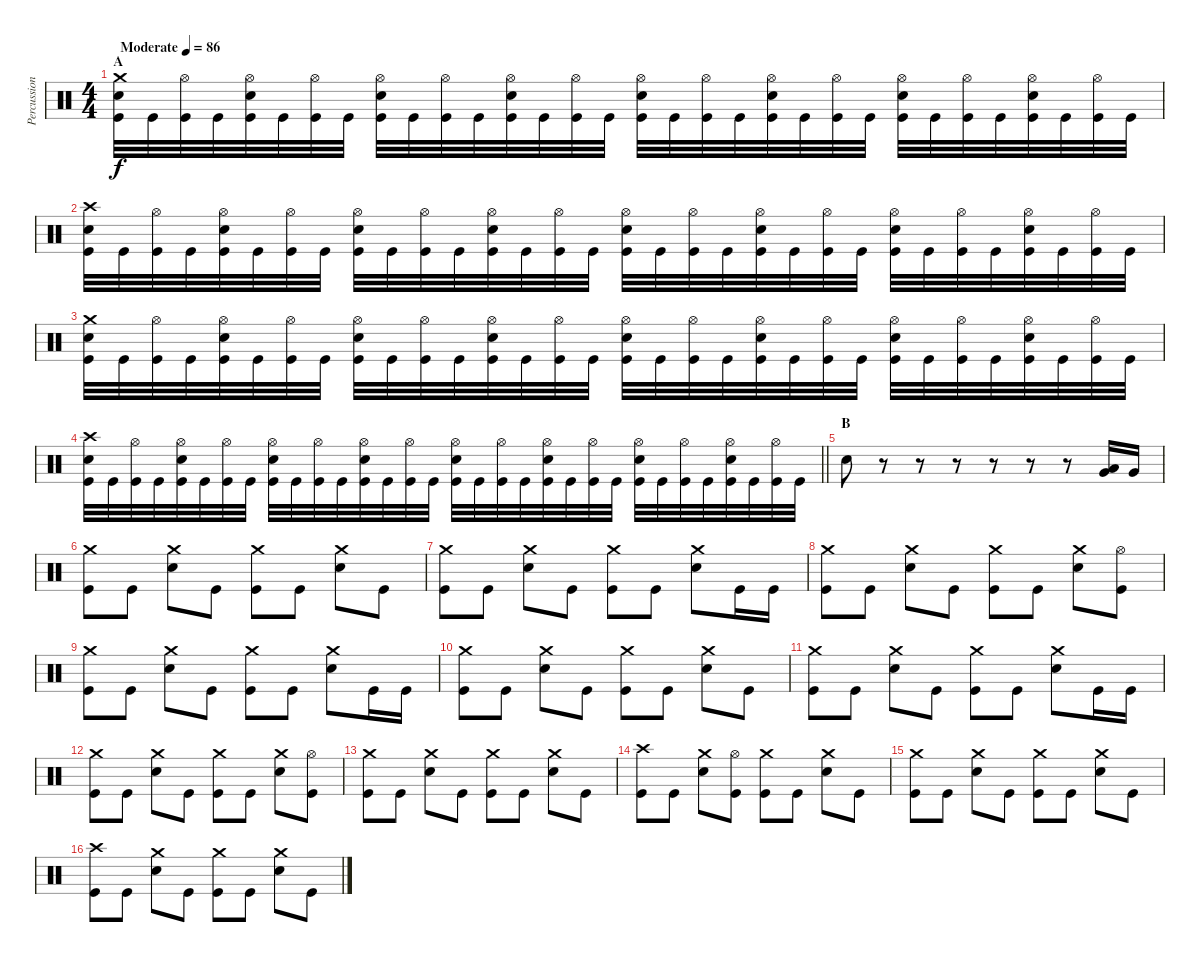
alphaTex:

\track ("Percussion" "Percussion") {instrument percussion}
\staff {score}
\articulation defaults
\ts (4 4)
\section ("" "A")
\tempo (86 "Moderate")
\clef neutral
\ks c
("Kick (hit)" "Snare (hit) 2" "Crash medium (hit)").32{dy f} "Kick (hit)".32 ("Kick (hit)" "Hi-Hat (open)").32 "Kick (hit)".32 ("Kick (hit)" "Snare (hit) 2" "Hi-Hat (open)").32 "Kick (hit)".32 ("Kick (hit)" "Hi-Hat (open)").32 "Kick (hit)".32 ("Kick (hit)" "Snare (hit) 2" "Hi-Hat (open)").32 "Kick (hit)".32 ("Kick (hit)" "Hi-Hat (open)").32 "Kick (hit)".32 ("Kick (hit)" "Snare (hit) 2" "Hi-Hat (open)").32 "Kick (hit)".32 ("Kick (hit)" "Hi-Hat (open)").32 "Kick (hit)".32 ("Kick (hit)" "Snare (hit) 2" "Hi-Hat (open)").32 "Kick (hit)".32 ("Kick (hit)" "Hi-Hat (open)").32 "Kick (hit)".32 ("Kick (hit)" "Snare (hit) 2" "Hi-Hat (open)").32 "Kick (hit)".32 ("Kick (hit)" "Hi-Hat (open)").32 "Kick (hit)".32 ("Kick (hit)" "Snare (hit) 2" "Hi-Hat (open)").32 "Kick (hit)".32 ("Kick (hit)" "Hi-Hat (open)").32 "Kick (hit)".32 ("Kick (hit)" "Snare (hit) 2" "Hi-Hat (open)").32 "Kick (hit)".32 ("Kick (hit)" "Hi-Hat (open)").32 "Kick (hit)".32 |
("Kick (hit)" "Snare (hit) 2" "Crash high (hit)").32 "Kick (hit)".32 ("Kick (hit)" "Hi-Hat (open)").32 "Kick (hit)".32 ("Kick (hit)" "Snare (hit) 2" "Hi-Hat (open)").32 "Kick (hit)".32 ("Kick (hit)" "Hi-Hat (open)").32 "Kick (hit)".32 ("Kick (hit)" "Snare (hit) 2" "Hi-Hat (open)").32 "Kick (hit)".32 ("Kick (hit)" "Hi-Hat (open)").32 "Kick (hit)".32 ("Kick (hit)" "Snare (hit) 2" "Hi-Hat (open)").32 "Kick (hit)".32 ("Kick (hit)" "Hi-Hat (open)").32 "Kick (hit)".32 ("Kick (hit)" "Snare (hit) 2" "Hi-Hat (open)").32 "Kick (hit)".32 ("Kick (hit)" "Hi-Hat (open)").32 "Kick (hit)".32 ("Kick (hit)" "Snare (hit) 2" "Hi-Hat (open)").32 "Kick (hit)".32 ("Kick (hit)" "Hi-Hat (open)").32 "Kick (hit)".32 ("Kick (hit)" "Snare (hit) 2" "Hi-Hat (open)").32 "Kick (hit)".32 ("Kick (hit)" "Hi-Hat (open)").32 "Kick (hit)".32 ("Kick (hit)" "Snare (hit) 2" "Hi-Hat (open)").32 "Kick (hit)".32 ("Kick (hit)" "Hi-Hat (open)").32 "Kick (hit)".32 |
("Kick (hit)" "Snare (hit) 2" "Crash medium (hit)").32 "Kick (hit)".32 ("Kick (hit)" "Hi-Hat (open)").32 "Kick (hit)".32 ("Kick (hit)" "Snare (hit) 2" "Hi-Hat (open)").32 "Kick (hit)".32 ("Kick (hit)" "Hi-Hat (open)").32 "Kick (hit)".32 ("Kick (hit)" "Snare (hit) 2" "Hi-Hat (open)").32 "Kick (hit)".32 ("Kick (hit)" "Hi-Hat (open)").32 "Kick (hit)".32 ("Kick (hit)" "Snare (hit) 2" "Hi-Hat (open)").32 "Kick (hit)".32 ("Kick (hit)" "Hi-Hat (open)").32 "Kick (hit)".32 ("Kick (hit)" "Snare (hit) 2" "Hi-Hat (open)").32 "Kick (hit)".32 ("Kick (hit)" "Hi-Hat (open)").32 "Kick (hit)".32 ("Kick (hit)" "Snare (hit) 2" "Hi-Hat (open)").32 "Kick (hit)".32 ("Kick (hit)" "Hi-Hat (open)").32 "Kick (hit)".32 ("Kick (hit)" "Snare (hit) 2" "Hi-Hat (open)").32 "Kick (hit)".32 ("Kick (hit)" "Hi-Hat (open)").32 "Kick (hit)".32 ("Kick (hit)" "Snare (hit) 2" "Hi-Hat (open)").32 "Kick (hit)".32 ("Kick (hit)" "Hi-Hat (open)").32 "Kick (hit)".32 |
\barLineRight lightlight
("Kick (hit)" "Snare (hit) 2" "Crash high (hit)").32 "Kick (hit)".32 ("Kick (hit)" "Hi-Hat (open)").32 "Kick (hit)".32 ("Kick (hit)" "Snare (hit) 2" "Hi-Hat (open)").32 "Kick (hit)".32 ("Kick (hit)" "Hi-Hat (open)").32 "Kick (hit)".32 ("Kick (hit)" "Snare (hit) 2" "Hi-Hat (open)").32 "Kick (hit)".32 ("Kick (hit)" "Hi-Hat (open)").32 "Kick (hit)".32 ("Kick (hit)" "Snare (hit) 2" "Hi-Hat (open)").32 "Kick (hit)".32 ("Kick (hit)" "Hi-Hat (open)").32 "Kick (hit)".32 ("Kick (hit)" "Snare (hit) 2" "Hi-Hat (open)").32 "Kick (hit)".32 ("Kick (hit)" "Hi-Hat (open)").32 "Kick (hit)".32 ("Kick (hit)" "Snare (hit) 2" "Hi-Hat (open)").32 "Kick (hit)".32 ("Kick (hit)" "Hi-Hat (open)").32 "Kick (hit)".32 ("Kick (hit)" "Snare (hit) 2" "Hi-Hat (open)").32 "Kick (hit)".32 ("Kick (hit)" "Hi-Hat (open)").32 "Kick (hit)".32 ("Kick (hit)" "Snare (hit) 2" "Hi-Hat (open)").32 "Kick (hit)".32 ("Kick (hit)" "Hi-Hat (open)").32 "Kick (hit)".32 |
\section ("" "B")
"Snare (hit) 2".8 r.8 r.8 r.8 r.8 r.8 r.8 ("Low Tom (hit)" "Very Low Tom (hit)").16{bd 120} "Very Low Tom (hit)".16 |
("Kick (hit)" "Crash medium (hit)").8 "Kick (hit)".8 ("Snare (hit) 2" "Crash medium (hit)").8 "Kick (hit)".8 ("Kick (hit)" "Crash medium (hit)").8 "Kick (hit)".8 ("Snare (hit) 2" "Crash medium (hit)").8 "Kick (hit)".8 |
("Kick (hit)" "Crash medium (hit)").8 "Kick (hit)".8 ("Snare (hit) 2" "Crash medium (hit)").8 "Kick (hit)".8 ("Kick (hit)" "Crash medium (hit)").8 "Kick (hit)".8 ("Snare (hit) 2" "Crash medium (hit)").8 "Kick (hit)".16 "Kick (hit)".16 |
("Kick (hit)" "Crash medium (hit)").8 "Kick (hit)".8 ("Snare (hit) 2" "Crash medium (hit)").8 "Kick (hit)".8 ("Kick (hit)" "Crash medium (hit)").8 "Kick (hit)".8 ("Snare (hit) 2" "Crash medium (hit)").8 ("Kick (hit)" "Hi-Hat (open)").8 |
("Kick (hit)" "Crash medium (hit)").8 "Kick (hit)".8 ("Snare (hit) 2" "Crash medium (hit)").8 "Kick (hit)".8 ("Kick (hit)" "Crash medium (hit)").8 "Kick (hit)".8 ("Snare (hit) 2" "Crash medium (hit)").8 "Kick (hit)".16 "Kick (hit)".16 |
("Kick (hit)" "Crash medium (hit)").8 "Kick (hit)".8 ("Snare (hit) 2" "Crash medium (hit)").8 "Kick (hit)".8 ("Kick (hit)" "Crash medium (hit)").8 "Kick (hit)".8 ("Snare (hit) 2" "Crash medium (hit)").8 "Kick (hit)".8 |
("Kick (hit)" "Crash medium (hit)").8 "Kick (hit)".8 ("Snare (hit) 2" "Crash medium (hit)").8 "Kick (hit)".8 ("Kick (hit)" "Crash medium (hit)").8 "Kick (hit)".8 ("Snare (hit) 2" "Crash medium (hit)").8 "Kick (hit)".16 "Kick (hit)".16 |
("Kick (hit)" "Crash medium (hit)").8 "Kick (hit)".8 ("Snare (hit) 2" "Crash medium (hit)").8 "Kick (hit)".8 ("Kick (hit)" "Crash medium (hit)").8 "Kick (hit)".8 ("Snare (hit) 2" "Crash medium (hit)").8 ("Kick (hit)" "Hi-Hat (open)").8 |
("Kick (hit)" "Crash medium (hit)").8 "Kick (hit)".8 ("Snare (hit) 2" "Crash medium (hit)").8 "Kick (hit)".8 ("Kick (hit)" "Crash medium (hit)").8 "Kick (hit)".8 ("Snare (hit) 2" "Crash medium (hit)").8 "Kick (hit)".8 |
("Kick (hit)" "Crash high (hit)").8 "Kick (hit)".8 ("Snare (hit) 2" "Crash medium (hit)").8 ("Kick (hit)" "Hi-Hat (open)").8 ("Kick (hit)" "Crash medium (hit)").8 "Kick (hit)".8 ("Snare (hit) 2" "Crash medium (hit)").8 "Kick (hit)".8 |
("Kick (hit)" "Crash medium (hit)").8 "Kick (hit)".8 ("Snare (hit) 2" "Crash medium (hit)").8 "Kick (hit)".8 ("Kick (hit)" "Crash medium (hit)").8 "Kick (hit)".8 ("Snare (hit) 2" "Crash medium (hit)").8 "Kick (hit)".8 |
("Kick (hit)" "Crash high (hit)").8 "Kick (hit)".8 ("Snare (hit) 2" "Crash medium (hit)").8 "Kick (hit)".8 ("Kick (hit)" "Crash medium (hit)").8 "Kick (hit)".8 ("Snare (hit) 2" "Crash medium (hit)").8 "Kick (hit)".8
